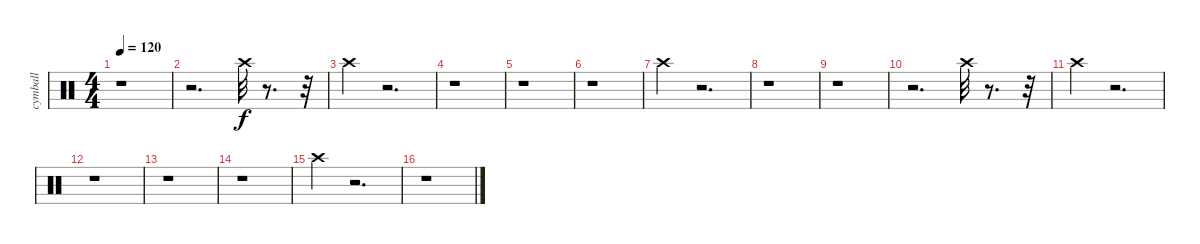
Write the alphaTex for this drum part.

\track ("cymball" "cymball") {instrument percussion}
\staff {score}
\articulation defaults
\ts (4 4)
\tempo 120
\clef neutral
\ks c
r.1{dy f} |
r.2{d} "Crash high (hit)".32 r.8{d} r.32 |
"Crash high (hit)".4 r.2{d} |
r.1 |
r.1 |
r.1 |
"Crash high (hit)".4 r.2{d} |
r.1 |
r.1 |
r.2{d} "Crash high (hit)".32 r.8{d} r.32 |
"Crash high (hit)".4 r.2{d} |
r.1 |
r.1 |
r.1 |
"Crash high (hit)".4 r.2{d} |
r.1
